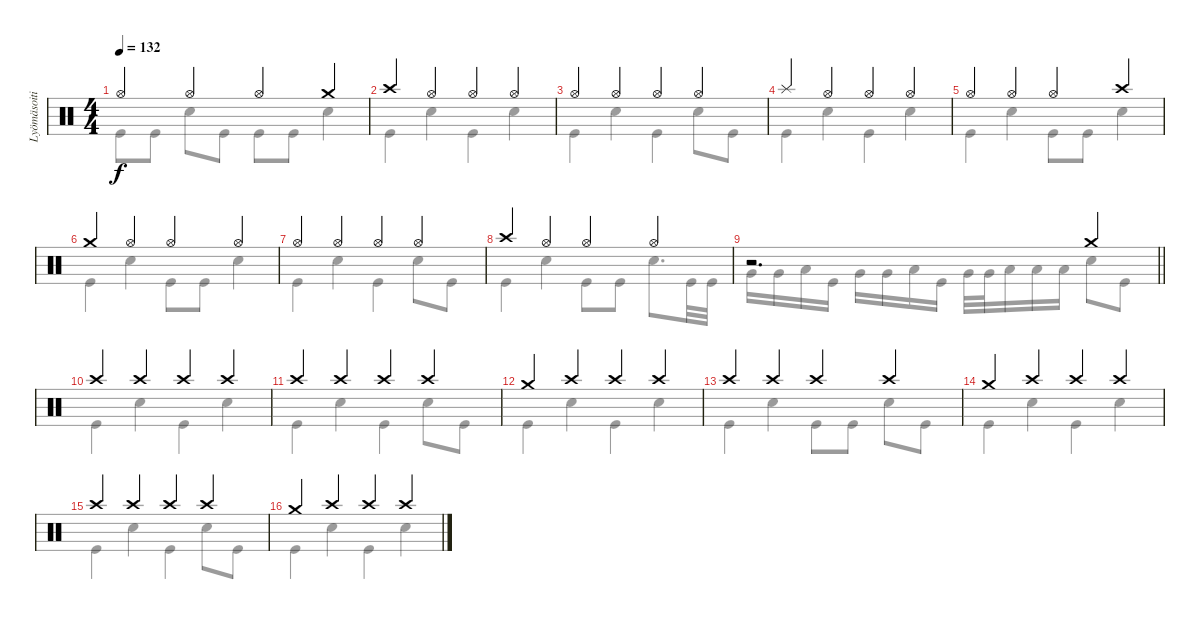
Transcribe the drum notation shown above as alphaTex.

\track ("Lyömäsoitin" "Lyömäsoiti") {instrument percussion}
\staff {score}
\articulation defaults
\voice
\ts (4 4)
\tempo 132
\clef neutral
\ks c "Hi-Hat (open)".4{dy f} "Hi-Hat (open)".4 "Hi-Hat (open)".4 "Crash medium (hit)".4
|
"Crash high (hit)".4 "Hi-Hat (open)".4 "Hi-Hat (open)".4 "Hi-Hat (open)".4 |
"Hi-Hat (open)".4 "Hi-Hat (open)".4 "Hi-Hat (open)".4 "Hi-Hat (open)".4 |
"Splash (hit)".4 "Hi-Hat (open)".4 "Hi-Hat (open)".4 "Hi-Hat (open)".4 |
"Hi-Hat (open)".4 "Hi-Hat (open)".4 "Hi-Hat (open)".4 "Crash high (hit)".4 |
"Crash medium (hit)".4 "Hi-Hat (open)".4 "Hi-Hat (open)".4 "Hi-Hat (open)".4 |
"Hi-Hat (open)".4 "Hi-Hat (open)".4 "Hi-Hat (open)".4 "Hi-Hat (open)".4 |
"Crash high (hit)".4 "Hi-Hat (open)".4 "Hi-Hat (open)".4 "Hi-Hat (open)".4 |
\barLineRight lightlight
r.2{d} "Crash medium (hit)".4 |
\section ("" "")
"Crash high (hit)".4 "Crash high (hit)".4 "Crash high (hit)".4 "Crash high (hit)".4 |
"Crash high (hit)".4 "Crash high (hit)".4 "Crash high (hit)".4 "Crash high (hit)".4 |
"Crash medium (hit)".4 "Crash high (hit)".4 "Crash high (hit)".4 "Crash high (hit)".4 |
"Crash high (hit)".4 "Crash high (hit)".4 "Crash high (hit)".4 "Crash high (hit)".4 |
"Crash medium (hit)".4 "Crash high (hit)".4 "Crash high (hit)".4 "Crash high (hit)".4 |
"Crash high (hit)".4 "Crash high (hit)".4 "Crash high (hit)".4 "Crash high (hit)".4 |
"Crash medium (hit)".4 "Crash high (hit)".4 "Crash high (hit)".4 "Crash high (hit)".4
\voice
\clef neutral
\ottava regular
\simile none
\ks c "Kick (hit)".8{dy f} "Kick (hit)".8 "Electric Snare (hit)".8 "Kick (hit)".8 "Kick (hit)".8 "Kick (hit)".8 "Electric Snare (hit)".4
|
"Kick (hit)".4 "Electric Snare (hit)".4 "Kick (hit)".4 "Electric Snare (hit)".4 |
"Kick (hit)".4 "Electric Snare (hit)".4 "Kick (hit)".4 "Electric Snare (hit)".8 "Kick (hit)".8 |
"Kick (hit)".4 "Electric Snare (hit)".4 "Kick (hit)".4 "Electric Snare (hit)".4 |
"Kick (hit)".4 "Electric Snare (hit)".4 "Kick (hit)".8 "Kick (hit)".8 "Electric Snare (hit)".4 |
"Kick (hit)".4 "Electric Snare (hit)".4 "Kick (hit)".8 "Kick (hit)".8 "Electric Snare (hit)".4 |
"Kick (hit)".4 "Electric Snare (hit)".4 "Kick (hit)".4 "Electric Snare (hit)".8 "Kick (hit)".8 |
"Kick (hit)".4 "Electric Snare (hit)".4 "Kick (hit)".8 "Kick (hit)".8 "Electric Snare (hit)".8{d} "Kick (hit)".32 "Kick (hit)".32 |
\barLineRight lightlight "Very Low Tom (hit)".16 "Very Low Tom (hit)".16 "Low Floor Tom (hit)".16 "Kick (hit)".16 "Very Low Tom (hit)".16 "Very Low Tom (hit)".16 "Low Floor Tom (hit)".16 "Kick (hit)".16 "Very Low Tom (hit)".32 "Very Low Tom (hit)".32 "Low Floor Tom (hit)".16 "Low Floor Tom (hit)".16 "Low Floor Tom (hit)".16 "Electric Snare (hit)".8 "Kick (hit)".8
|
"Kick (hit)".4 "Electric Snare (hit)".4 "Kick (hit)".4 "Electric Snare (hit)".4 |
"Kick (hit)".4 "Electric Snare (hit)".4 "Kick (hit)".4 "Electric Snare (hit)".8 "Kick (hit)".8 |
"Kick (hit)".4 "Electric Snare (hit)".4 "Kick (hit)".4 "Electric Snare (hit)".4 |
"Kick (hit)".4 "Electric Snare (hit)".4 "Kick (hit)".8 "Kick (hit)".8 "Electric Snare (hit)".8 "Kick (hit)".8 |
"Kick (hit)".4 "Electric Snare (hit)".4 "Kick (hit)".4 "Electric Snare (hit)".4 |
"Kick (hit)".4 "Electric Snare (hit)".4 "Kick (hit)".4 "Electric Snare (hit)".8 "Kick (hit)".8 |
"Kick (hit)".4 "Electric Snare (hit)".4 "Kick (hit)".4 "Electric Snare (hit)".4
